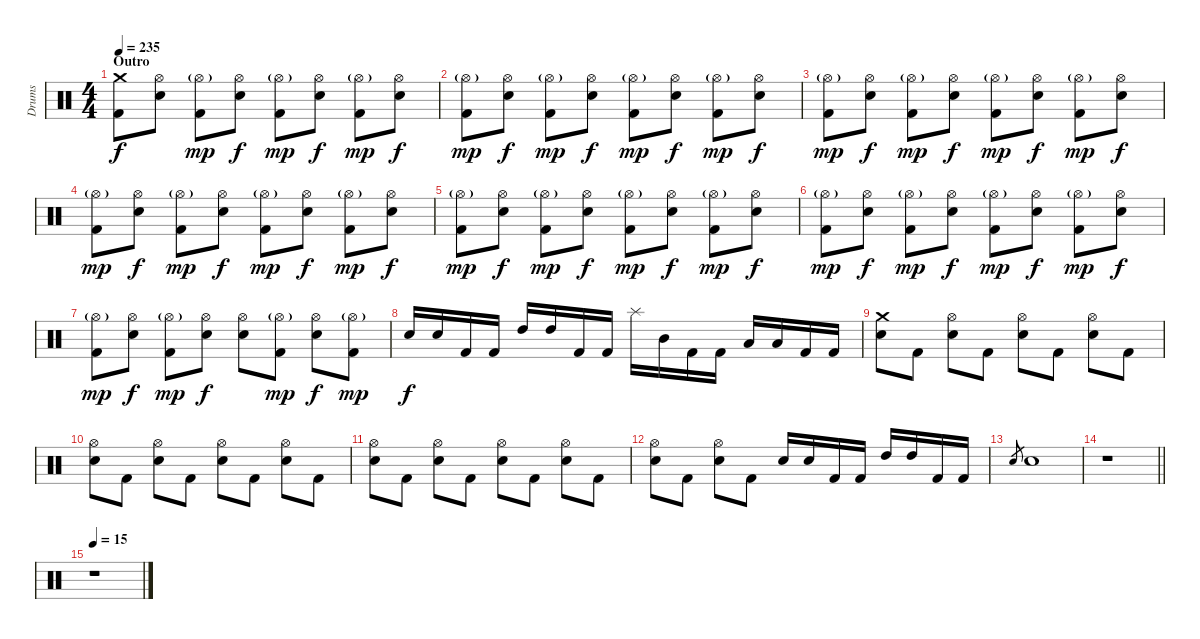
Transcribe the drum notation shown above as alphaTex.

\track ("Drums" "Drums") {instrument percussion}
\staff {score}
\articulation defaults
\ts (4 4)
\section ("" "Outro")
\tempo 235
\clef neutral
\ks c
("Crash medium (hit)" "Kick (hit) 2").8{dy f} ("Hi-Hat (open)" "Electric Snare (hit)").8 ("Hi-Hat (open)"{g} "Kick (hit) 2").8{dy mp} ("Hi-Hat (open)" "Electric Snare (hit)").8{dy f} ("Hi-Hat (open)"{g} "Kick (hit) 2").8{dy mp} ("Hi-Hat (open)" "Electric Snare (hit)").8{dy f} ("Hi-Hat (open)"{g} "Kick (hit) 2").8{dy mp} ("Hi-Hat (open)" "Electric Snare (hit)").8{dy f} |
("Hi-Hat (open)"{g} "Kick (hit) 2").8{dy mp} ("Hi-Hat (open)" "Electric Snare (hit)").8{dy f} ("Hi-Hat (open)"{g} "Kick (hit) 2").8{dy mp} ("Hi-Hat (open)" "Electric Snare (hit)").8{dy f} ("Hi-Hat (open)"{g} "Kick (hit) 2").8{dy mp} ("Hi-Hat (open)" "Electric Snare (hit)").8{dy f} ("Hi-Hat (open)"{g} "Kick (hit) 2").8{dy mp} ("Hi-Hat (open)" "Electric Snare (hit)").8{dy f} |
("Hi-Hat (open)"{g} "Kick (hit) 2").8{dy mp} ("Hi-Hat (open)" "Electric Snare (hit)").8{dy f} ("Hi-Hat (open)"{g} "Kick (hit) 2").8{dy mp} ("Hi-Hat (open)" "Electric Snare (hit)").8{dy f} ("Hi-Hat (open)"{g} "Kick (hit) 2").8{dy mp} ("Hi-Hat (open)" "Electric Snare (hit)").8{dy f} ("Hi-Hat (open)"{g} "Kick (hit) 2").8{dy mp} ("Hi-Hat (open)" "Electric Snare (hit)").8{dy f} |
("Hi-Hat (open)"{g} "Kick (hit) 2").8{dy mp} ("Hi-Hat (open)" "Electric Snare (hit)").8{dy f} ("Hi-Hat (open)"{g} "Kick (hit) 2").8{dy mp} ("Hi-Hat (open)" "Electric Snare (hit)").8{dy f} ("Hi-Hat (open)"{g} "Kick (hit) 2").8{dy mp} ("Hi-Hat (open)" "Electric Snare (hit)").8{dy f} ("Hi-Hat (open)"{g} "Kick (hit) 2").8{dy mp} ("Hi-Hat (open)" "Electric Snare (hit)").8{dy f} |
("Hi-Hat (open)"{g} "Kick (hit) 2").8{dy mp} ("Hi-Hat (open)" "Electric Snare (hit)").8{dy f} ("Hi-Hat (open)"{g} "Kick (hit) 2").8{dy mp} ("Hi-Hat (open)" "Electric Snare (hit)").8{dy f} ("Hi-Hat (open)"{g} "Kick (hit) 2").8{dy mp} ("Hi-Hat (open)" "Electric Snare (hit)").8{dy f} ("Hi-Hat (open)"{g} "Kick (hit) 2").8{dy mp} ("Hi-Hat (open)" "Electric Snare (hit)").8{dy f} |
("Hi-Hat (open)"{g} "Kick (hit) 2").8{dy mp} ("Hi-Hat (open)" "Electric Snare (hit)").8{dy f} ("Hi-Hat (open)"{g} "Kick (hit) 2").8{dy mp} ("Hi-Hat (open)" "Electric Snare (hit)").8{dy f} ("Hi-Hat (open)"{g} "Kick (hit) 2").8{dy mp} ("Hi-Hat (open)" "Electric Snare (hit)").8{dy f} ("Hi-Hat (open)"{g} "Kick (hit) 2").8{dy mp} ("Hi-Hat (open)" "Electric Snare (hit)").8{dy f} |
("Hi-Hat (open)"{g} "Kick (hit) 2").8{dy mp} ("Hi-Hat (open)" "Electric Snare (hit)").8{dy f} ("Hi-Hat (open)"{g} "Kick (hit) 2").8{dy mp} ("Hi-Hat (open)" "Electric Snare (hit)").8{dy f} ("Hi-Hat (open)" "Electric Snare (hit)").8 ("Hi-Hat (open)"{g} "Kick (hit) 2").8{dy mp} ("Hi-Hat (open)" "Electric Snare (hit)").8{dy f} ("Hi-Hat (open)"{g} "Kick (hit) 2").8{dy mp} |
"Electric Snare (hit)".16{dy f} "Electric Snare (hit)".16 "Kick (hit) 2".16 "Kick (hit) 2".16 "High Tom (hit)".16 "High Tom (hit)".16 "Kick (hit) 2".16 "Kick (hit) 2".16 "Splash (hit)".16 "Mid Tom (hit)".16 "Kick (hit) 2".16 "Kick (hit) 2".16 "Low Tom (hit)".16 "Low Tom (hit)".16 "Kick (hit) 2".16 "Kick (hit) 2".16 |
("Crash medium (hit)" "Electric Snare (hit)").8 "Kick (hit) 2".8 ("Hi-Hat (open)" "Electric Snare (hit)").8 "Kick (hit) 2".8 ("Hi-Hat (open)" "Electric Snare (hit)").8 "Kick (hit) 2".8 ("Hi-Hat (open)" "Electric Snare (hit)").8 "Kick (hit) 2".8 |
("Hi-Hat (open)" "Electric Snare (hit)").8 "Kick (hit) 2".8 ("Hi-Hat (open)" "Electric Snare (hit)").8 "Kick (hit) 2".8 ("Hi-Hat (open)" "Electric Snare (hit)").8 "Kick (hit) 2".8 ("Hi-Hat (open)" "Electric Snare (hit)").8 "Kick (hit) 2".8 |
("Hi-Hat (open)" "Electric Snare (hit)").8 "Kick (hit) 2".8 ("Hi-Hat (open)" "Electric Snare (hit)").8 "Kick (hit) 2".8 ("Hi-Hat (open)" "Electric Snare (hit)").8 "Kick (hit) 2".8 ("Hi-Hat (open)" "Electric Snare (hit)").8 "Kick (hit) 2".8 |
("Hi-Hat (open)" "Electric Snare (hit)").8 "Kick (hit) 2".8 ("Hi-Hat (open)" "Electric Snare (hit)").8 "Kick (hit) 2".8 "Electric Snare (hit)".16 "Electric Snare (hit)".16 "Kick (hit) 2".16 "Kick (hit) 2".16 "High Tom (hit)".16 "High Tom (hit)".16 "Kick (hit) 2".16 "Kick (hit) 2".16 |
"Electric Snare (hit)".8{gr} "Electric Snare (hit)".1 |
\barLineRight lightlight
r.1 |
\tempo 15
r.1
